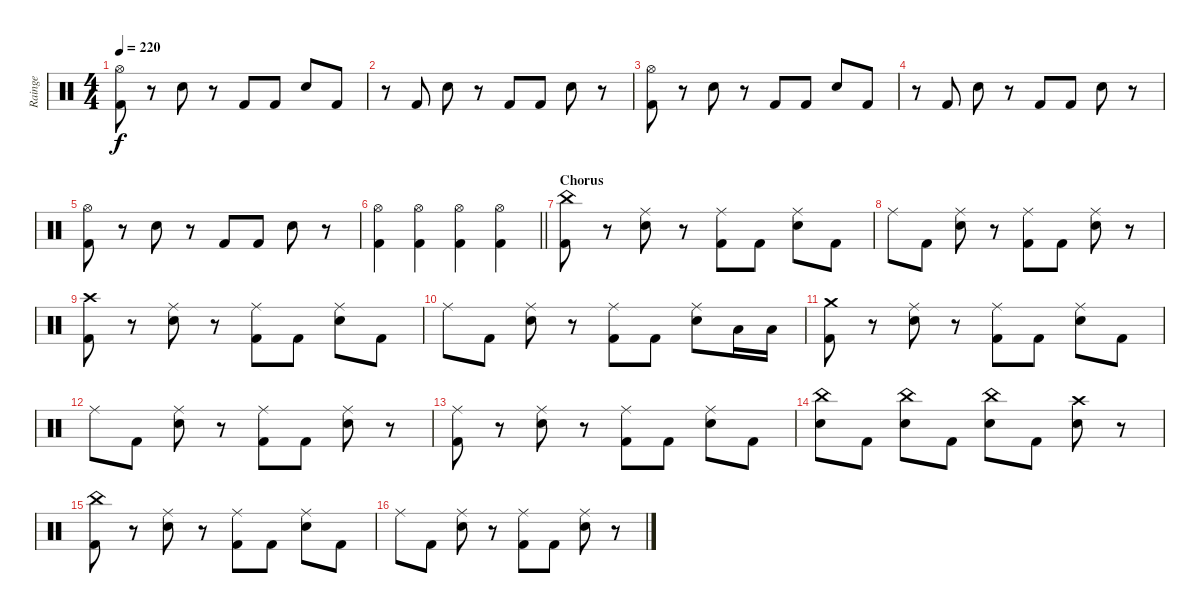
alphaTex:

\track ("Rainge" "Rainge") {instrument percussion}
\staff {score}
\articulation defaults
\ts (4 4)
\tempo 220
\clef neutral
\ks c
("Hi-Hat (open)" "Kick (hit) 2").8{dy f} r.8 "Electric Snare (hit)".8 r.8 "Kick (hit) 2".8 "Kick (hit) 2".8 "Electric Snare (hit)".8 "Kick (hit) 2".8 |
r.8 "Kick (hit) 2".8 "Electric Snare (hit)".8 r.8 "Kick (hit) 2".8 "Kick (hit) 2".8 "Electric Snare (hit)".8 r.8 |
("Hi-Hat (open)" "Kick (hit) 2").8 r.8 "Electric Snare (hit)".8 r.8 "Kick (hit) 2".8 "Kick (hit) 2".8 "Electric Snare (hit)".8 "Kick (hit) 2".8 |
r.8 "Kick (hit) 2".8 "Electric Snare (hit)".8 r.8 "Kick (hit) 2".8 "Kick (hit) 2".8 "Electric Snare (hit)".8 r.8 |
("Hi-Hat (open)" "Kick (hit) 2").8 r.8 "Electric Snare (hit)".8 r.8 "Kick (hit) 2".8 "Kick (hit) 2".8 "Electric Snare (hit)".8 r.8 |
\barLineRight lightlight
("Hi-Hat (open)" "Kick (hit) 2").4 ("Hi-Hat (open)" "Kick (hit) 2").4 ("Hi-Hat (open)" "Kick (hit) 2").4 ("Hi-Hat (open)" "Kick (hit) 2").4 |
\section ("" "Chorus")
("China (hit)" "Kick (hit) 2").8 r.8 ("Ride (middle)" "Electric Snare (hit)").8 r.8 ("Ride (middle)" "Kick (hit) 2").8 "Kick (hit) 2".8 ("Ride (middle)" "Electric Snare (hit)").8 "Kick (hit) 2".8 |
"Ride (middle)".8 "Kick (hit) 2".8 ("Ride (middle)" "Electric Snare (hit)").8 r.8 ("Ride (middle)" "Kick (hit) 2").8 "Kick (hit) 2".8 ("Ride (middle)" "Electric Snare (hit)").8 r.8 |
("Crash high (hit)" "Kick (hit) 2").8 r.8 ("Ride (middle)" "Electric Snare (hit)").8 r.8 ("Ride (middle)" "Kick (hit) 2").8 "Kick (hit) 2".8 ("Ride (middle)" "Electric Snare (hit)").8 "Kick (hit) 2".8 |
"Ride (middle)".8 "Kick (hit) 2".8 ("Ride (middle)" "Electric Snare (hit)").8 r.8 ("Ride (middle)" "Kick (hit) 2").8 "Kick (hit) 2".8 ("Ride (middle)" "Electric Snare (hit)").8 "Low Tom (hit)".16 "Low Tom (hit)".16 |
("Crash medium (hit)" "Kick (hit) 2").8 r.8 ("Ride (middle)" "Electric Snare (hit)").8 r.8 ("Ride (middle)" "Kick (hit) 2").8 "Kick (hit) 2".8 ("Ride (middle)" "Electric Snare (hit)").8 "Kick (hit) 2".8 |
"Ride (middle)".8 "Kick (hit) 2".8 ("Ride (middle)" "Electric Snare (hit)").8 r.8 ("Ride (middle)" "Kick (hit) 2").8 "Kick (hit) 2".8 ("Ride (middle)" "Electric Snare (hit)").8 r.8 |
("Ride (middle)" "Kick (hit) 2").8 r.8 ("Ride (middle)" "Electric Snare (hit)").8 r.8 ("Ride (middle)" "Kick (hit) 2").8 "Kick (hit) 2".8 ("Ride (middle)" "Electric Snare (hit)").8 "Kick (hit) 2".8 |
("China (hit)" "Electric Snare (hit)").8 "Kick (hit) 2".8 ("China (hit)" "Electric Snare (hit)").8 "Kick (hit) 2".8 ("China (hit)" "Electric Snare (hit)").8 "Kick (hit) 2".8 ("Crash high (hit)" "Electric Snare (hit)").8 r.8 |
("China (hit)" "Kick (hit) 2").8 r.8 ("Ride (middle)" "Electric Snare (hit)").8 r.8 ("Ride (middle)" "Kick (hit) 2").8 "Kick (hit) 2".8 ("Ride (middle)" "Electric Snare (hit)").8 "Kick (hit) 2".8 |
"Ride (middle)".8 "Kick (hit) 2".8 ("Ride (middle)" "Electric Snare (hit)").8 r.8 ("Ride (middle)" "Kick (hit) 2").8 "Kick (hit) 2".8 ("Ride (middle)" "Electric Snare (hit)").8 r.8
